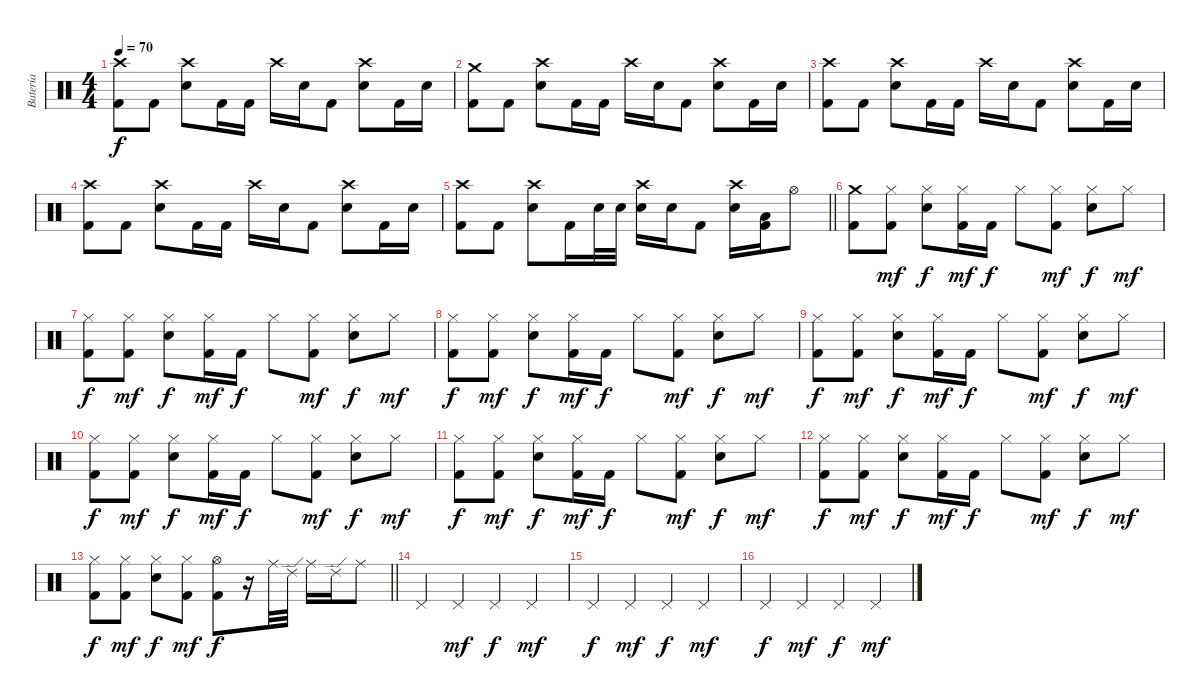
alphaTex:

\track ("Batería" "Batería") {instrument percussion}
\staff {score}
\articulation defaults
\ts (4 4)
\tempo 70
\clef neutral
\ks c
("Crash high (hit)" "Kick (hit) 2").8{dy f} "Kick (hit) 2".8 ("Crash high (hit)" "Electric Snare (hit)").8 "Kick (hit) 2".16 "Kick (hit) 2".16 "Crash high (hit)".16 "Electric Snare (hit)".16 "Kick (hit) 2".8 ("Crash high (hit)" "Electric Snare (hit)").8 "Kick (hit) 2".16 "Electric Snare (hit)".16 |
("Crash medium (hit)" "Kick (hit) 2").8 "Kick (hit) 2".8 ("Crash high (hit)" "Electric Snare (hit)").8 "Kick (hit) 2".16 "Kick (hit) 2".16 "Crash high (hit)".16 "Electric Snare (hit)".16 "Kick (hit) 2".8 ("Crash high (hit)" "Electric Snare (hit)").8 "Kick (hit) 2".16 "Electric Snare (hit)".16 |
("Crash high (hit)" "Kick (hit) 2").8 "Kick (hit) 2".8 ("Crash high (hit)" "Electric Snare (hit)").8 "Kick (hit) 2".16 "Kick (hit) 2".16 "Crash high (hit)".16 "Electric Snare (hit)".16 "Kick (hit) 2".8 ("Crash high (hit)" "Electric Snare (hit)").8 "Kick (hit) 2".16 "Electric Snare (hit)".16 |
("Crash high (hit)" "Kick (hit) 2").8 "Kick (hit) 2".8 ("Crash high (hit)" "Electric Snare (hit)").8 "Kick (hit) 2".16 "Kick (hit) 2".16 "Crash high (hit)".16 "Electric Snare (hit)".16 "Kick (hit) 2".8 ("Crash high (hit)" "Electric Snare (hit)").8 "Kick (hit) 2".16 "Electric Snare (hit)".16 |
\barLineRight lightlight
("Crash high (hit)" "Kick (hit) 2").8 "Kick (hit) 2".8 ("Crash high (hit)" "Electric Snare (hit)").8 "Kick (hit) 2".16 "Electric Snare (hit)".32 "Electric Snare (hit)".32 ("Crash high (hit)" "Electric Snare (hit)").16 "Electric Snare (hit)".16 "Kick (hit) 2".8 ("Crash high (hit)" "Electric Snare (hit)").16 ("Low Floor Tom (hit)" "Kick (hit) 2").16 "Hi-Hat (open)".8 |
("Crash medium (hit)" "Kick (hit) 2").8 ("Hi-Hat (closed)" "Kick (hit) 2").8{dy mf} ("Hi-Hat (closed)" "Electric Snare (hit)").8{dy f} ("Hi-Hat (closed)" "Kick (hit) 2").16{dy mf} "Kick (hit) 2".16{dy f} "Hi-Hat (closed)".8 ("Hi-Hat (closed)" "Kick (hit) 2").8{dy mf} ("Hi-Hat (closed)" "Electric Snare (hit)").8{dy f} "Hi-Hat (closed)".8{dy mf} |
("Hi-Hat (closed)" "Kick (hit) 2").8{dy f} ("Hi-Hat (closed)" "Kick (hit) 2").8{dy mf} ("Hi-Hat (closed)" "Electric Snare (hit)").8{dy f} ("Hi-Hat (closed)" "Kick (hit) 2").16{dy mf} "Kick (hit) 2".16{dy f} "Hi-Hat (closed)".8 ("Hi-Hat (closed)" "Kick (hit) 2").8{dy mf} ("Hi-Hat (closed)" "Electric Snare (hit)").8{dy f} "Hi-Hat (closed)".8{dy mf} |
("Hi-Hat (closed)" "Kick (hit) 2").8{dy f} ("Hi-Hat (closed)" "Kick (hit) 2").8{dy mf} ("Hi-Hat (closed)" "Electric Snare (hit)").8{dy f} ("Hi-Hat (closed)" "Kick (hit) 2").16{dy mf} "Kick (hit) 2".16{dy f} "Hi-Hat (closed)".8 ("Hi-Hat (closed)" "Kick (hit) 2").8{dy mf} ("Hi-Hat (closed)" "Electric Snare (hit)").8{dy f} "Hi-Hat (closed)".8{dy mf} |
("Hi-Hat (closed)" "Kick (hit) 2").8{dy f} ("Hi-Hat (closed)" "Kick (hit) 2").8{dy mf} ("Hi-Hat (closed)" "Electric Snare (hit)").8{dy f} ("Hi-Hat (closed)" "Kick (hit) 2").16{dy mf} "Kick (hit) 2".16{dy f} "Hi-Hat (closed)".8 ("Hi-Hat (closed)" "Kick (hit) 2").8{dy mf} ("Hi-Hat (closed)" "Electric Snare (hit)").8{dy f} "Hi-Hat (closed)".8{dy mf} |
("Hi-Hat (closed)" "Kick (hit) 2").8{dy f} ("Hi-Hat (closed)" "Kick (hit) 2").8{dy mf} ("Hi-Hat (closed)" "Electric Snare (hit)").8{dy f} ("Hi-Hat (closed)" "Kick (hit) 2").16{dy mf} "Kick (hit) 2".16{dy f} "Hi-Hat (closed)".8 ("Hi-Hat (closed)" "Kick (hit) 2").8{dy mf} ("Hi-Hat (closed)" "Electric Snare (hit)").8{dy f} "Hi-Hat (closed)".8{dy mf} |
("Hi-Hat (closed)" "Kick (hit) 2").8{dy f} ("Hi-Hat (closed)" "Kick (hit) 2").8{dy mf} ("Hi-Hat (closed)" "Electric Snare (hit)").8{dy f} ("Hi-Hat (closed)" "Kick (hit) 2").16{dy mf} "Kick (hit) 2".16{dy f} "Hi-Hat (closed)".8 ("Hi-Hat (closed)" "Kick (hit) 2").8{dy mf} ("Hi-Hat (closed)" "Electric Snare (hit)").8{dy f} "Hi-Hat (closed)".8{dy mf} |
("Hi-Hat (closed)" "Kick (hit) 2").8{dy f} ("Hi-Hat (closed)" "Kick (hit) 2").8{dy mf} ("Hi-Hat (closed)" "Electric Snare (hit)").8{dy f} ("Hi-Hat (closed)" "Kick (hit) 2").16{dy mf} "Kick (hit) 2".16{dy f} "Hi-Hat (closed)".8 ("Hi-Hat (closed)" "Kick (hit) 2").8{dy mf} ("Hi-Hat (closed)" "Electric Snare (hit)").8{dy f} "Hi-Hat (closed)".8{dy mf} |
\barLineRight lightlight
("Hi-Hat (closed)" "Kick (hit) 2").8{dy f} ("Hi-Hat (closed)" "Kick (hit) 2").8{dy mf} ("Hi-Hat (closed)" "Electric Snare (hit)").8{dy f} ("Hi-Hat (closed)" "Kick (hit) 2").8{dy mf} ("Hi-Hat (open)" "Kick (hit) 2").8{dy f} r.16 "Ride (middle)".32 "Ride (edge) 2".32 "Ride (middle)".16 "Ride (edge) 2".16 "Ride (middle)".8 |
"Pedal Hi-Hat (hit)".4 "Pedal Hi-Hat (hit)".4{dy mf} "Pedal Hi-Hat (hit)".4{dy f} "Pedal Hi-Hat (hit)".4{dy mf} |
"Pedal Hi-Hat (hit)".4{dy f} "Pedal Hi-Hat (hit)".4{dy mf} "Pedal Hi-Hat (hit)".4{dy f} "Pedal Hi-Hat (hit)".4{dy mf} |
"Pedal Hi-Hat (hit)".4{dy f} "Pedal Hi-Hat (hit)".4{dy mf} "Pedal Hi-Hat (hit)".4{dy f} "Pedal Hi-Hat (hit)".4{dy mf}
